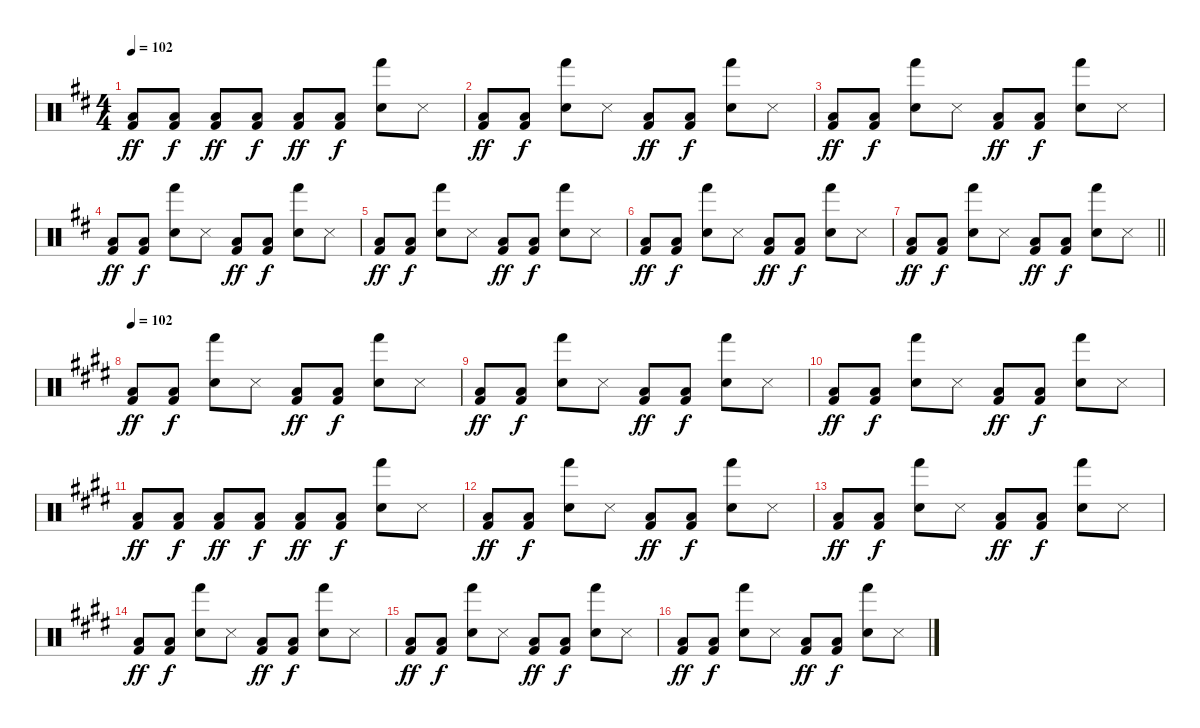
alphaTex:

\track "" {instrument percussion}
\staff {score}
\articulation defaults
\ts (4 4)
\tempo 102
\clef neutral
\ks d
("Kick (hit) 2" "Low Floor Tom (hit)").8{dy ff} ("Kick (hit) 2" "Low Floor Tom (hit)").8{dy f} ("Kick (hit) 2" "Low Floor Tom (hit)").8{dy ff} ("Kick (hit) 2" "Low Floor Tom (hit)").8{dy f} ("Kick (hit) 2" "Low Floor Tom (hit)").8{dy ff} ("Kick (hit) 2" "Low Floor Tom (hit)").8{dy f} ("Electric Snare (hit)" "Hand (hit)").8 "Snare (side stick) 3".8 |
("Kick (hit) 2" "Low Floor Tom (hit)").8{dy ff} ("Kick (hit) 2" "Low Floor Tom (hit)").8{dy f} ("Electric Snare (hit)" "Hand (hit)").8 "Snare (side stick) 3".8 ("Kick (hit) 2" "Low Floor Tom (hit)").8{dy ff} ("Kick (hit) 2" "Low Floor Tom (hit)").8{dy f} ("Electric Snare (hit)" "Hand (hit)").8 "Snare (side stick) 3".8 |
("Kick (hit) 2" "Low Floor Tom (hit)").8{dy ff} ("Kick (hit) 2" "Low Floor Tom (hit)").8{dy f} ("Electric Snare (hit)" "Hand (hit)").8 "Snare (side stick) 3".8 ("Kick (hit) 2" "Low Floor Tom (hit)").8{dy ff} ("Kick (hit) 2" "Low Floor Tom (hit)").8{dy f} ("Electric Snare (hit)" "Hand (hit)").8 "Snare (side stick) 3".8 |
("Kick (hit) 2" "Low Floor Tom (hit)").8{dy ff} ("Kick (hit) 2" "Low Floor Tom (hit)").8{dy f} ("Electric Snare (hit)" "Hand (hit)").8 "Snare (side stick) 3".8 ("Kick (hit) 2" "Low Floor Tom (hit)").8{dy ff} ("Kick (hit) 2" "Low Floor Tom (hit)").8{dy f} ("Electric Snare (hit)" "Hand (hit)").8 "Snare (side stick) 3".8 |
("Kick (hit) 2" "Low Floor Tom (hit)").8{dy ff} ("Kick (hit) 2" "Low Floor Tom (hit)").8{dy f} ("Electric Snare (hit)" "Hand (hit)").8 "Snare (side stick) 3".8 ("Kick (hit) 2" "Low Floor Tom (hit)").8{dy ff} ("Kick (hit) 2" "Low Floor Tom (hit)").8{dy f} ("Electric Snare (hit)" "Hand (hit)").8 "Snare (side stick) 3".8 |
("Kick (hit) 2" "Low Floor Tom (hit)").8{dy ff} ("Kick (hit) 2" "Low Floor Tom (hit)").8{dy f} ("Electric Snare (hit)" "Hand (hit)").8 "Snare (side stick) 3".8 ("Kick (hit) 2" "Low Floor Tom (hit)").8{dy ff} ("Kick (hit) 2" "Low Floor Tom (hit)").8{dy f} ("Electric Snare (hit)" "Hand (hit)").8 "Snare (side stick) 3".8 |
\barLineRight lightlight
("Kick (hit) 2" "Low Floor Tom (hit)").8{dy ff} ("Kick (hit) 2" "Low Floor Tom (hit)").8{dy f} ("Electric Snare (hit)" "Hand (hit)").8 "Snare (side stick) 3".8 ("Kick (hit) 2" "Low Floor Tom (hit)").8{dy ff} ("Kick (hit) 2" "Low Floor Tom (hit)").8{dy f} ("Electric Snare (hit)" "Hand (hit)").8 "Snare (side stick) 3".8 |
\section ("" "")
\tempo 102
\ks e
("Kick (hit) 2" "Low Floor Tom (hit)").8{dy ff} ("Kick (hit) 2" "Low Floor Tom (hit)").8{dy f} ("Electric Snare (hit)" "Hand (hit)").8 "Snare (side stick) 3".8 ("Kick (hit) 2" "Low Floor Tom (hit)").8{dy ff} ("Kick (hit) 2" "Low Floor Tom (hit)").8{dy f} ("Electric Snare (hit)" "Hand (hit)").8 "Snare (side stick) 3".8 |
("Kick (hit) 2" "Low Floor Tom (hit)").8{dy ff} ("Kick (hit) 2" "Low Floor Tom (hit)").8{dy f} ("Electric Snare (hit)" "Hand (hit)").8 "Snare (side stick) 3".8 ("Kick (hit) 2" "Low Floor Tom (hit)").8{dy ff} ("Kick (hit) 2" "Low Floor Tom (hit)").8{dy f} ("Electric Snare (hit)" "Hand (hit)").8 "Snare (side stick) 3".8 |
("Kick (hit) 2" "Low Floor Tom (hit)").8{dy ff} ("Kick (hit) 2" "Low Floor Tom (hit)").8{dy f} ("Electric Snare (hit)" "Hand (hit)").8 "Snare (side stick) 3".8 ("Kick (hit) 2" "Low Floor Tom (hit)").8{dy ff} ("Kick (hit) 2" "Low Floor Tom (hit)").8{dy f} ("Electric Snare (hit)" "Hand (hit)").8 "Snare (side stick) 3".8 |
("Kick (hit) 2" "Low Floor Tom (hit)").8{dy ff} ("Kick (hit) 2" "Low Floor Tom (hit)").8{dy f} ("Kick (hit) 2" "Low Floor Tom (hit)").8{dy ff} ("Kick (hit) 2" "Low Floor Tom (hit)").8{dy f} ("Kick (hit) 2" "Low Floor Tom (hit)").8{dy ff} ("Kick (hit) 2" "Low Floor Tom (hit)").8{dy f} ("Electric Snare (hit)" "Hand (hit)").8 "Snare (side stick) 3".8 |
("Kick (hit) 2" "Low Floor Tom (hit)").8{dy ff} ("Kick (hit) 2" "Low Floor Tom (hit)").8{dy f} ("Electric Snare (hit)" "Hand (hit)").8 "Snare (side stick) 3".8 ("Kick (hit) 2" "Low Floor Tom (hit)").8{dy ff} ("Kick (hit) 2" "Low Floor Tom (hit)").8{dy f} ("Electric Snare (hit)" "Hand (hit)").8 "Snare (side stick) 3".8 |
("Kick (hit) 2" "Low Floor Tom (hit)").8{dy ff} ("Kick (hit) 2" "Low Floor Tom (hit)").8{dy f} ("Electric Snare (hit)" "Hand (hit)").8 "Snare (side stick) 3".8 ("Kick (hit) 2" "Low Floor Tom (hit)").8{dy ff} ("Kick (hit) 2" "Low Floor Tom (hit)").8{dy f} ("Electric Snare (hit)" "Hand (hit)").8 "Snare (side stick) 3".8 |
("Kick (hit) 2" "Low Floor Tom (hit)").8{dy ff} ("Kick (hit) 2" "Low Floor Tom (hit)").8{dy f} ("Electric Snare (hit)" "Hand (hit)").8 "Snare (side stick) 3".8 ("Kick (hit) 2" "Low Floor Tom (hit)").8{dy ff} ("Kick (hit) 2" "Low Floor Tom (hit)").8{dy f} ("Electric Snare (hit)" "Hand (hit)").8 "Snare (side stick) 3".8 |
("Kick (hit) 2" "Low Floor Tom (hit)").8{dy ff} ("Kick (hit) 2" "Low Floor Tom (hit)").8{dy f} ("Electric Snare (hit)" "Hand (hit)").8 "Snare (side stick) 3".8 ("Kick (hit) 2" "Low Floor Tom (hit)").8{dy ff} ("Kick (hit) 2" "Low Floor Tom (hit)").8{dy f} ("Electric Snare (hit)" "Hand (hit)").8 "Snare (side stick) 3".8 |
("Kick (hit) 2" "Low Floor Tom (hit)").8{dy ff} ("Kick (hit) 2" "Low Floor Tom (hit)").8{dy f} ("Electric Snare (hit)" "Hand (hit)").8 "Snare (side stick) 3".8 ("Kick (hit) 2" "Low Floor Tom (hit)").8{dy ff} ("Kick (hit) 2" "Low Floor Tom (hit)").8{dy f} ("Electric Snare (hit)" "Hand (hit)").8 "Snare (side stick) 3".8
